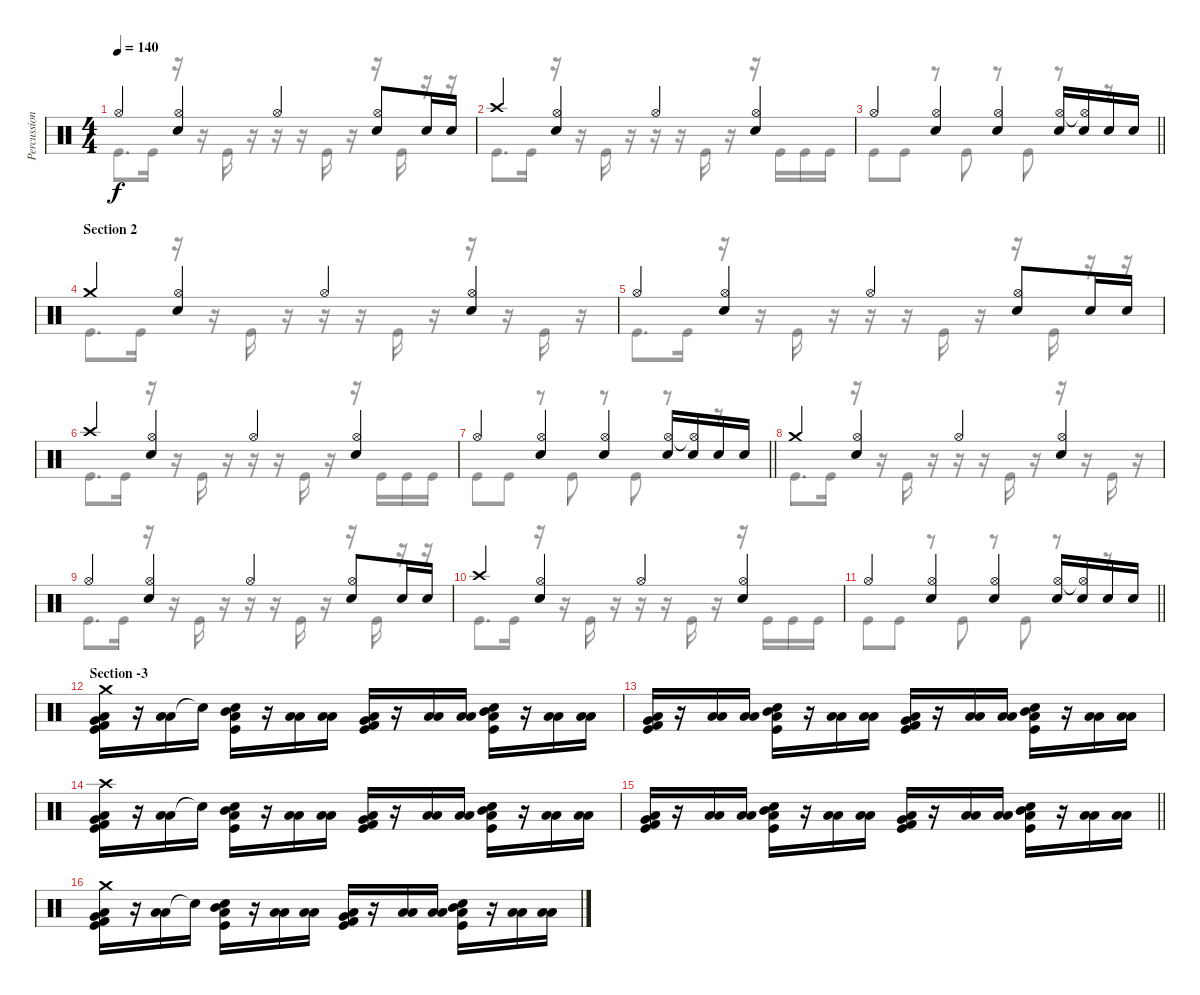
\track ("Percussion" "Percussion") {instrument percussion}
\staff {score}
\articulation defaults
\voice
\ts (4 4)
\tempo 140
\clef neutral
\ks c "Hi-Hat (open)".4{dy f}
("Hi-Hat (open)" "Snare (hit) 2").4 "Hi-Hat (open)".4 ("Hi-Hat (open)" "Snare (hit) 2").8 "Snare (hit) 2".16 "Snare (hit) 2".16 |
"Crash high (hit)".4 ("Hi-Hat (open)" "Snare (hit) 2").4 "Hi-Hat (open)".4 ("Hi-Hat (open)" "Snare (hit) 2").4 |
\barLineRight lightlight "Hi-Hat (open)".4
("Hi-Hat (open)" "Snare (hit) 2").4 ("Hi-Hat (open)" "Snare (hit) 2").4 ("Hi-Hat (open)" "Snare (hit) 2").16 ("Hi-Hat (open)"{t} "Snare (hit) 2").16 "Snare (hit) 2".16 "Snare (hit) 2".16 |
\section ("" "Section 2")
"Crash medium (hit)".4 ("Hi-Hat (open)" "Snare (hit) 2").4 "Hi-Hat (open)".4 ("Hi-Hat (open)" "Snare (hit) 2").4 |
"Hi-Hat (open)".4 ("Hi-Hat (open)" "Snare (hit) 2").4 "Hi-Hat (open)".4 ("Hi-Hat (open)" "Snare (hit) 2").8 "Snare (hit) 2".16 "Snare (hit) 2".16 |
"Crash high (hit)".4 ("Hi-Hat (open)" "Snare (hit) 2").4 "Hi-Hat (open)".4 ("Hi-Hat (open)" "Snare (hit) 2").4 |
\barLineRight lightlight "Hi-Hat (open)".4
("Hi-Hat (open)" "Snare (hit) 2").4 ("Hi-Hat (open)" "Snare (hit) 2").4 ("Hi-Hat (open)" "Snare (hit) 2").16 ("Hi-Hat (open)"{t} "Snare (hit) 2").16 "Snare (hit) 2".16 "Snare (hit) 2".16 |
"Crash medium (hit)".4 ("Hi-Hat (open)" "Snare (hit) 2").4 "Hi-Hat (open)".4 ("Hi-Hat (open)" "Snare (hit) 2").4 |
"Hi-Hat (open)".4 ("Hi-Hat (open)" "Snare (hit) 2").4 "Hi-Hat (open)".4 ("Hi-Hat (open)" "Snare (hit) 2").8 "Snare (hit) 2".16 "Snare (hit) 2".16 |
"Crash high (hit)".4 ("Hi-Hat (open)" "Snare (hit) 2").4 "Hi-Hat (open)".4 ("Hi-Hat (open)" "Snare (hit) 2").4 |
\barLineRight lightlight "Hi-Hat (open)".4
("Hi-Hat (open)" "Snare (hit) 2").4 ("Hi-Hat (open)" "Snare (hit) 2").4 ("Hi-Hat (open)" "Snare (hit) 2").16 ("Hi-Hat (open)"{t} "Snare (hit) 2").16 "Snare (hit) 2".16 "Snare (hit) 2".16 |
\section ("" "Section -3")
("Crash medium (hit)" "Low Floor Tom (hit)" "Very Low Tom (hit)" "Kick (hit) 2" "Kick (hit)").16 r.16 ("Low Tom (hit)" "Low Tom (hit)").16 "Snare (hit)"{t}.16 ("Mid Tom (hit)" "Snare (hit) 2" "Low Tom (hit)" "Kick (hit)").16 r.16 ("Low Tom (hit)" "Low Tom (hit)").16 ("Low Tom (hit)" "Low Tom (hit)").16 ("Very Low Tom (hit)" "Low Floor Tom (hit)" "Kick (hit) 2" "Kick (hit)").16 r.16 ("Low Tom (hit)" "Low Tom (hit)").16 ("Low Tom (hit)" "Low Tom (hit)").16 ("Mid Tom (hit)" "Snare (hit) 2" "Low Tom (hit)" "Kick (hit)").16 r.16 ("Low Tom (hit)" "Low Tom (hit)").16 ("Low Tom (hit)" "Low Tom (hit)").16 |
("Low Floor Tom (hit)" "Very Low Tom (hit)" "Kick (hit) 2" "Kick (hit)").16 r.16 ("Low Tom (hit)" "Low Tom (hit)").16 ("Low Tom (hit)" "Low Tom (hit)").16 ("Mid Tom (hit)" "Snare (hit) 2" "Low Tom (hit)" "Kick (hit)").16 r.16 ("Low Tom (hit)" "Low Tom (hit)").16 ("Low Tom (hit)" "Low Tom (hit)").16 ("Very Low Tom (hit)" "Low Floor Tom (hit)" "Kick (hit) 2" "Kick (hit)").16 r.16 ("Low Tom (hit)" "Low Tom (hit)").16 ("Low Tom (hit)" "Low Tom (hit)").16 ("Mid Tom (hit)" "Snare (hit) 2" "Low Tom (hit)" "Kick (hit)").16 r.16 ("Low Tom (hit)" "Low Tom (hit)").16 ("Low Tom (hit)" "Low Tom (hit)").16 |
("Crash high (hit)" "Low Floor Tom (hit)" "Very Low Tom (hit)" "Kick (hit) 2" "Kick (hit)").16 r.16 ("Low Tom (hit)" "Low Tom (hit)").16 "Snare (hit)"{t}.16 ("Mid Tom (hit)" "Snare (hit) 2" "Low Tom (hit)" "Kick (hit)").16 r.16 ("Low Tom (hit)" "Low Tom (hit)").16 ("Low Tom (hit)" "Low Tom (hit)").16 ("Very Low Tom (hit)" "Low Floor Tom (hit)" "Kick (hit) 2" "Kick (hit)").16 r.16 ("Low Tom (hit)" "Low Tom (hit)").16 ("Low Tom (hit)" "Low Tom (hit)").16 ("Mid Tom (hit)" "Snare (hit) 2" "Low Tom (hit)" "Kick (hit)").16 r.16 ("Low Tom (hit)" "Low Tom (hit)").16 ("Low Tom (hit)" "Low Tom (hit)").16 |
\barLineRight lightlight
("Low Floor Tom (hit)" "Very Low Tom (hit)" "Kick (hit) 2" "Kick (hit)").16 r.16 ("Low Tom (hit)" "Low Tom (hit)").16 ("Low Tom (hit)" "Low Tom (hit)").16 ("Mid Tom (hit)" "Snare (hit) 2" "Low Tom (hit)" "Kick (hit)").16 r.16 ("Low Tom (hit)" "Low Tom (hit)").16 ("Low Tom (hit)" "Low Tom (hit)").16 ("Very Low Tom (hit)" "Low Floor Tom (hit)" "Kick (hit) 2" "Kick (hit)").16 r.16 ("Low Tom (hit)" "Low Tom (hit)").16 ("Low Tom (hit)" "Low Tom (hit)").16 ("Mid Tom (hit)" "Snare (hit) 2" "Low Tom (hit)" "Kick (hit)").16 r.16 ("Low Tom (hit)" "Low Tom (hit)").16 ("Low Tom (hit)" "Low Tom (hit)").16 |
("Crash medium (hit)" "Low Floor Tom (hit)" "Very Low Tom (hit)" "Kick (hit) 2" "Kick (hit)").16 r.16 ("Low Tom (hit)" "Low Tom (hit)").16 "Snare (hit)"{t}.16 ("Mid Tom (hit)" "Snare (hit) 2" "Low Tom (hit)" "Kick (hit)").16 r.16 ("Low Tom (hit)" "Low Tom (hit)").16 ("Low Tom (hit)" "Low Tom (hit)").16 ("Very Low Tom (hit)" "Low Floor Tom (hit)" "Kick (hit) 2" "Kick (hit)").16 r.16 ("Low Tom (hit)" "Low Tom (hit)").16 ("Low Tom (hit)" "Low Tom (hit)").16 ("Mid Tom (hit)" "Snare (hit) 2" "Low Tom (hit)" "Kick (hit)").16 r.16 ("Low Tom (hit)" "Low Tom (hit)").16 ("Low Tom (hit)" "Low Tom (hit)").16
\voice
\clef neutral
\ottava regular
\simile none
\ks c "Kick (hit)".8{d dy f} "Kick (hit)".16
r.16 r.16 "Kick (hit)".16 r.16 r.16 r.16 "Kick (hit)".16 r.16 r.16 "Kick (hit)".16 r.16 r.16 |
"Kick (hit)".8{d} "Kick (hit)".16 r.16 r.16 "Kick (hit)".16 r.16 r.16 r.16 "Kick (hit)".16 r.16 r.16 "Kick (hit)".16 "Kick (hit)".16 "Kick (hit)".16 |
\barLineRight lightlight "Kick (hit)".8 "Kick (hit)".8
r.8 "Kick (hit)".8 r.8 "Kick (hit)".8 r.8 r.8 |
"Kick (hit)".8{d} "Kick (hit)".16 r.16 r.16 "Kick (hit)".16 r.16 r.16 r.16 "Kick (hit)".16 r.16 r.16 r.16 "Kick (hit)".16 r.16 |
"Kick (hit)".8{d} "Kick (hit)".16 r.16 r.16 "Kick (hit)".16 r.16 r.16 r.16 "Kick (hit)".16 r.16 r.16 "Kick (hit)".16 r.16 r.16 |
"Kick (hit)".8{d} "Kick (hit)".16 r.16 r.16 "Kick (hit)".16 r.16 r.16 r.16 "Kick (hit)".16 r.16 r.16 "Kick (hit)".16 "Kick (hit)".16 "Kick (hit)".16 |
\barLineRight lightlight "Kick (hit)".8 "Kick (hit)".8
r.8 "Kick (hit)".8 r.8 "Kick (hit)".8 r.8 r.8 |
"Kick (hit)".8{d} "Kick (hit)".16 r.16 r.16 "Kick (hit)".16 r.16 r.16 r.16 "Kick (hit)".16 r.16 r.16 r.16 "Kick (hit)".16 r.16 |
"Kick (hit)".8{d} "Kick (hit)".16 r.16 r.16 "Kick (hit)".16 r.16 r.16 r.16 "Kick (hit)".16 r.16 r.16 "Kick (hit)".16 r.16 r.16 |
"Kick (hit)".8{d} "Kick (hit)".16 r.16 r.16 "Kick (hit)".16 r.16 r.16 r.16 "Kick (hit)".16 r.16 r.16 "Kick (hit)".16 "Kick (hit)".16 "Kick (hit)".16 |
\barLineRight lightlight "Kick (hit)".8 "Kick (hit)".8
r.8 "Kick (hit)".8 r.8 "Kick (hit)".8 r.8 r.8 |
|
|
|
\barLineRight lightlight
|
